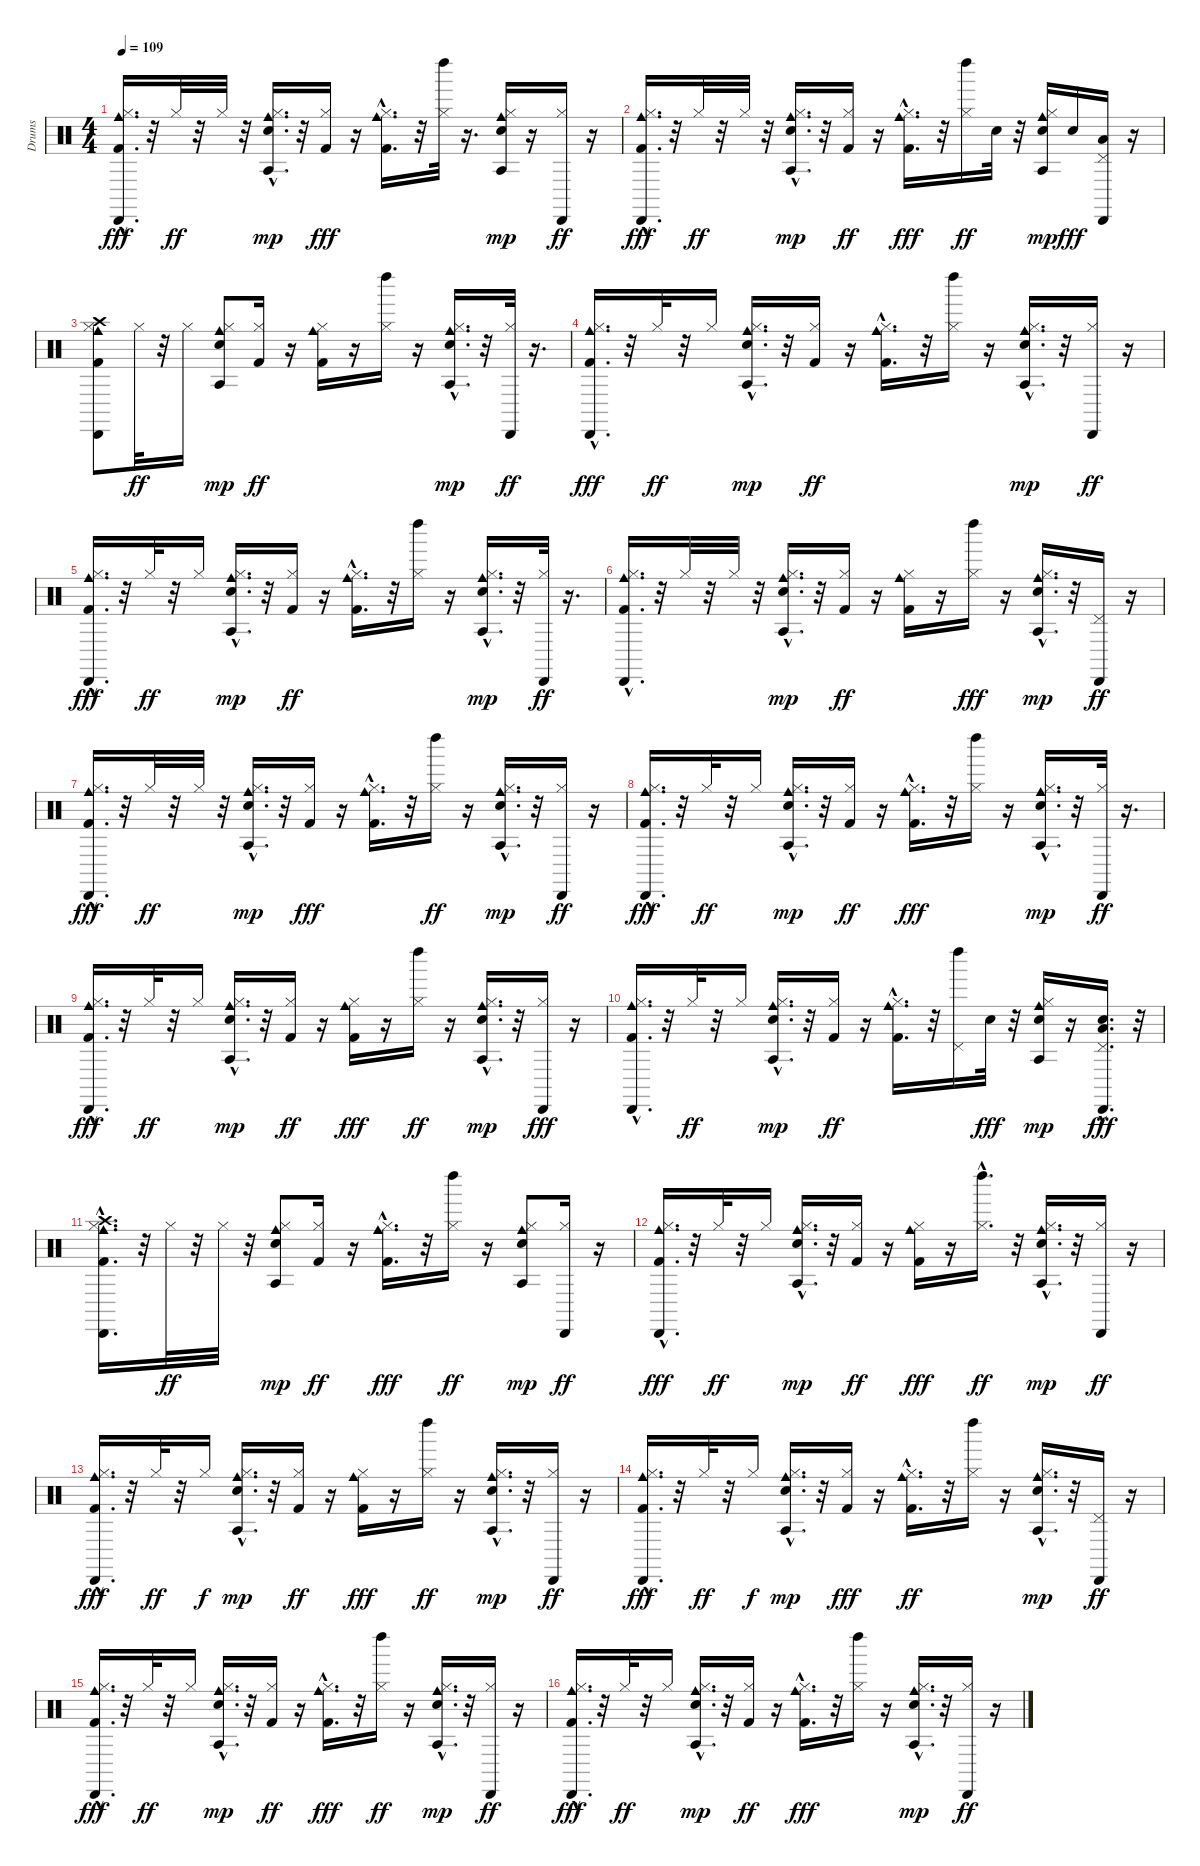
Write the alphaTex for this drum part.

\track ("Drums   " "Drums   ") {instrument percussion}
\staff {score}
\articulation defaults
\ts (4 4)
\tempo 109
\clef neutral
\ks c
("Kick (hit) 2"{hac} "Hi-Hat (closed)"{hac} "Cowbell medium (hit)"{hac} "Cabasa (hit)"{hac}).16{d dy fff} r.32 "Hi-Hat (closed)".32{dy ff} r.32 "Hi-Hat (closed)".32 r.32 ("Snare (hit) 2"{hac} "Hi-Hat (closed)"{hac} "Cowbell medium (hit)"{hac} "Agogo tow (hit)"{hac}).16{d dy mp} r.32 ("Kick (hit) 2" "Hi-Hat (closed)").16{dy fff} r.16 ("Kick (hit) 2"{hac} "Cowbell medium (hit)"{hac} "Hi-Hat (closed)"{hac}).16{d} r.32 ("Hi-Hat (closed)" "Left Maraca (hit)").32 r.16{d} ("Snare (hit) 2" "Hi-Hat (closed)" "Cowbell medium (hit)" "Agogo tow (hit)").16{dy mp} r.16 ("Hi-Hat (closed)" "Cabasa (hit)").16{dy ff} r.16 |
("Cowbell medium (hit)"{hac} "Kick (hit) 2"{hac} "Hi-Hat (closed)"{hac} "Cabasa (hit)"{hac}).16{d dy fff} r.32 "Hi-Hat (closed)".32{dy ff} r.32 "Hi-Hat (closed)".32 r.32 ("Snare (hit) 2"{hac} "Hi-Hat (closed)"{hac} "Cowbell medium (hit)"{hac} "Agogo tow (hit)"{hac}).16{d dy mp} r.32 ("Kick (hit) 2" "Hi-Hat (closed)").16{dy ff} r.16 ("Kick (hit) 2"{hac} "Hi-Hat (closed)"{hac} "Cowbell medium (hit)"{hac}).16{d dy fff} r.32 ("Hi-Hat (closed)" "Left Maraca (hit)").16{dy ff} "Snare (hit) 2".32 r.32 ("Snare (hit) 2" "Hi-Hat (closed)" "Cowbell medium (hit)" "Agogo tow (hit)").16{dy mp} "Snare (hit) 2".16{dy fff} ("Pedal Hi-Hat (hit)" "Low Tom (hit)" "Cabasa (hit)").16 r.16 |
("Kick (hit) 2" "Cowbell medium (hit)" "Hi-Hat (closed)" "Cabasa (hit)" "Crash high (hit)").8 "Hi-Hat (closed)".32{dy ff} r.32 "Hi-Hat (closed)".16 ("Snare (hit) 2" "Hi-Hat (closed)" "Cowbell medium (hit)" "Agogo tow (hit)").8{dy mp} ("Kick (hit) 2" "Hi-Hat (closed)").16{dy ff} r.16 ("Kick (hit) 2" "Cowbell medium (hit)" "Hi-Hat (closed)").16 r.16 ("Hi-Hat (closed)" "Left Maraca (hit)").16 r.16 ("Snare (hit) 2"{hac} "Hi-Hat (closed)"{hac} "Cowbell medium (hit)"{hac} "Agogo tow (hit)"{hac}).16{d dy mp} r.32 ("Hi-Hat (closed)" "Cabasa (hit)").32{dy ff} r.16{d} |
("Kick (hit) 2"{hac} "Cowbell medium (hit)"{hac} "Hi-Hat (closed)"{hac} "Cabasa (hit)"{hac}).16{d dy fff} r.32 "Hi-Hat (closed)".32{dy ff} r.32 "Hi-Hat (closed)".16 ("Snare (hit) 2"{hac} "Hi-Hat (closed)"{hac} "Cowbell medium (hit)"{hac} "Agogo tow (hit)"{hac}).16{d dy mp} r.32 ("Kick (hit) 2" "Hi-Hat (closed)").16{dy ff} r.16 ("Kick (hit) 2"{hac} "Cowbell medium (hit)"{hac} "Hi-Hat (closed)"{hac}).16{d} r.32 ("Hi-Hat (closed)" "Left Maraca (hit)").16 r.16 ("Snare (hit) 2"{hac} "Hi-Hat (closed)"{hac} "Cowbell medium (hit)"{hac} "Agogo tow (hit)"{hac}).16{d dy mp} r.32 ("Hi-Hat (closed)" "Cabasa (hit)").16{dy ff} r.16 |
("Cowbell medium (hit)"{hac} "Kick (hit) 2"{hac} "Hi-Hat (closed)"{hac} "Cabasa (hit)"{hac}).16{d dy fff} r.32 "Hi-Hat (closed)".32{dy ff} r.32 "Hi-Hat (closed)".16 ("Snare (hit) 2"{hac} "Cowbell medium (hit)"{hac} "Hi-Hat (closed)"{hac} "Agogo tow (hit)"{hac}).16{d dy mp} r.32 ("Kick (hit) 2" "Hi-Hat (closed)").16{dy ff} r.16 ("Kick (hit) 2"{hac} "Cowbell medium (hit)"{hac} "Hi-Hat (closed)"{hac}).16{d} r.32 ("Hi-Hat (closed)" "Left Maraca (hit)").16 r.16 ("Snare (hit) 2"{hac} "Cowbell medium (hit)"{hac} "Hi-Hat (closed)"{hac} "Agogo tow (hit)"{hac}).16{d dy mp} r.32 ("Hi-Hat (closed)" "Cabasa (hit)").32{dy ff} r.16{d} |
("Cowbell medium (hit)"{hac} "Kick (hit) 2"{hac} "Hi-Hat (closed)"{hac} "Cabasa (hit)"{hac}).16{d} r.32 "Hi-Hat (closed)".32 r.32 "Hi-Hat (closed)".32 r.32 ("Snare (hit) 2"{hac} "Cowbell medium (hit)"{hac} "Hi-Hat (closed)"{hac} "Agogo tow (hit)"{hac}).16{d dy mp} r.32 ("Kick (hit) 2" "Hi-Hat (closed)").16{dy ff} r.16 ("Cowbell medium (hit)" "Kick (hit) 2" "Hi-Hat (closed)").16 r.16 ("Hi-Hat (closed)" "Left Maraca (hit)").16{dy fff} r.16 ("Snare (hit) 2"{hac} "Cowbell medium (hit)"{hac} "Hi-Hat (closed)"{hac} "Agogo tow (hit)"{hac}).16{d dy mp} r.32 ("Pedal Hi-Hat (hit)" "Cabasa (hit)").16{dy ff} r.16 |
("Kick (hit) 2"{hac} "Cowbell medium (hit)"{hac} "Hi-Hat (closed)"{hac} "Cabasa (hit)"{hac}).16{d dy fff} r.32 "Hi-Hat (closed)".32{dy ff} r.32 "Hi-Hat (closed)".32 r.32 ("Snare (hit) 2"{hac} "Hi-Hat (closed)"{hac} "Cowbell medium (hit)"{hac} "Agogo tow (hit)"{hac}).16{d dy mp} r.32 ("Kick (hit) 2" "Hi-Hat (closed)").16{dy fff} r.16 ("Kick (hit) 2"{hac} "Cowbell medium (hit)"{hac} "Hi-Hat (closed)"{hac}).16{d} r.32 ("Hi-Hat (closed)" "Left Maraca (hit)").16{dy ff} r.16 ("Snare (hit) 2"{hac} "Hi-Hat (closed)"{hac} "Cowbell medium (hit)"{hac} "Agogo tow (hit)"{hac}).16{d dy mp} r.32 ("Hi-Hat (closed)" "Cabasa (hit)").16{dy ff} r.16 |
("Kick (hit) 2"{hac} "Cowbell medium (hit)"{hac} "Hi-Hat (closed)"{hac} "Cabasa (hit)"{hac}).16{d dy fff} r.32 "Hi-Hat (closed)".32{dy ff} r.32 "Hi-Hat (closed)".16 ("Snare (hit) 2"{hac} "Hi-Hat (closed)"{hac} "Cowbell medium (hit)"{hac} "Agogo tow (hit)"{hac}).16{d dy mp} r.32 ("Kick (hit) 2" "Hi-Hat (closed)").16{dy ff} r.16 ("Kick (hit) 2"{hac} "Hi-Hat (closed)"{hac} "Cowbell medium (hit)"{hac}).16{d dy fff} r.32 ("Hi-Hat (closed)" "Left Maraca (hit)").16 r.16 ("Snare (hit) 2"{hac} "Hi-Hat (closed)"{hac} "Cowbell medium (hit)"{hac} "Agogo tow (hit)"{hac}).16{d dy mp} r.32 ("Hi-Hat (closed)" "Cabasa (hit)").32{dy ff} r.16{d} |
("Kick (hit) 2"{hac} "Cowbell medium (hit)"{hac} "Hi-Hat (closed)"{hac} "Cabasa (hit)"{hac}).16{d dy fff} r.32 "Hi-Hat (closed)".32{dy ff} r.32 "Hi-Hat (closed)".16 ("Snare (hit) 2"{hac} "Hi-Hat (closed)"{hac} "Cowbell medium (hit)"{hac} "Agogo tow (hit)"{hac}).16{d dy mp} r.32 ("Kick (hit) 2" "Hi-Hat (closed)").16{dy ff} r.16 ("Kick (hit) 2" "Cowbell medium (hit)" "Hi-Hat (closed)").16{dy fff} r.16 ("Hi-Hat (closed)" "Left Maraca (hit)").16{dy ff} r.16 ("Snare (hit) 2"{hac} "Hi-Hat (closed)"{hac} "Cowbell medium (hit)"{hac} "Agogo tow (hit)"{hac}).16{d dy mp} r.32 ("Hi-Hat (closed)" "Cabasa (hit)").16{dy fff} r.16 |
("Kick (hit) 2"{hac} "Cowbell medium (hit)"{hac} "Hi-Hat (closed)"{hac} "Cabasa (hit)"{hac}).16{d} r.32 "Hi-Hat (closed)".32{dy ff} r.32 "Hi-Hat (closed)".16 ("Snare (hit) 2"{hac} "Hi-Hat (closed)"{hac} "Cowbell medium (hit)"{hac} "Agogo tow (hit)"{hac}).16{d dy mp} r.32 ("Kick (hit) 2" "Hi-Hat (closed)").16{dy ff} r.16 ("Kick (hit) 2"{hac} "Cowbell medium (hit)"{hac} "Hi-Hat (closed)"{hac}).16{d} r.32 ("Pedal Hi-Hat (hit)" "Left Maraca (hit)").16 "Snare (hit) 2".32{dy fff} r.32 ("Snare (hit) 2" "Hi-Hat (closed)" "Cowbell medium (hit)" "Agogo tow (hit)").16{dy mp} r.16 ("Snare (hit) 2"{hac} "Pedal Hi-Hat (hit)"{hac} "Cabasa (hit)"{hac} "Low Tom (hit)"{hac}).16{d dy fff} r.32 |
("Kick (hit) 2"{hac} "Cowbell medium (hit)"{hac} "Hi-Hat (closed)"{hac} "Cabasa (hit)"{hac} "Crash high (hit)"{hac}).16{d} r.32 "Hi-Hat (closed)".32{dy ff} r.32 "Hi-Hat (closed)".32 r.32 ("Snare (hit) 2" "Hi-Hat (closed)" "Cowbell medium (hit)" "Agogo tow (hit)").8{dy mp} ("Kick (hit) 2" "Hi-Hat (closed)").16{dy ff} r.16 ("Kick (hit) 2"{hac} "Hi-Hat (closed)"{hac} "Cowbell medium (hit)"{hac}).16{d dy fff} r.32 ("Hi-Hat (closed)" "Left Maraca (hit)").16{dy ff} r.16 ("Snare (hit) 2" "Hi-Hat (closed)" "Cowbell medium (hit)" "Agogo tow (hit)").8{dy mp} ("Hi-Hat (closed)" "Cabasa (hit)").16{dy ff} r.16 |
("Kick (hit) 2"{hac} "Cowbell medium (hit)"{hac} "Hi-Hat (closed)"{hac} "Cabasa (hit)"{hac}).16{d dy fff} r.32 "Hi-Hat (closed)".32{dy ff} r.32 "Hi-Hat (closed)".16 ("Snare (hit) 2"{hac} "Hi-Hat (closed)"{hac} "Cowbell medium (hit)"{hac} "Agogo tow (hit)"{hac}).16{d dy mp} r.32 ("Kick (hit) 2" "Hi-Hat (closed)").16{dy ff} r.16 ("Kick (hit) 2" "Cowbell medium (hit)" "Hi-Hat (closed)").16{dy fff} r.16 ("Hi-Hat (closed)"{hac} "Left Maraca (hit)"{hac}).16{d dy ff} r.32 ("Snare (hit) 2"{hac} "Hi-Hat (closed)"{hac} "Cowbell medium (hit)"{hac} "Agogo tow (hit)"{hac}).16{d dy mp} r.32 ("Hi-Hat (closed)" "Cabasa (hit)").16{dy ff} r.16 |
("Cowbell medium (hit)"{hac} "Kick (hit) 2"{hac} "Hi-Hat (closed)"{hac} "Cabasa (hit)"{hac}).16{d dy fff} r.32 "Hi-Hat (closed)".32{dy ff} r.32 "Hi-Hat (closed)".16{dy f} ("Snare (hit) 2"{hac} "Cowbell medium (hit)"{hac} "Hi-Hat (closed)"{hac} "Agogo tow (hit)"{hac}).16{d dy mp} r.32 ("Kick (hit) 2" "Hi-Hat (closed)").16{dy ff} r.16 ("Cowbell medium (hit)" "Kick (hit) 2" "Hi-Hat (closed)").16{dy fff} r.16 ("Hi-Hat (closed)" "Left Maraca (hit)").16{dy ff} r.16 ("Snare (hit) 2"{hac} "Hi-Hat (closed)"{hac} "Cowbell medium (hit)"{hac} "Agogo tow (hit)"{hac}).16{d dy mp} r.32 ("Hi-Hat (closed)" "Cabasa (hit)").16{dy ff} r.16 |
("Kick (hit) 2"{hac} "Hi-Hat (closed)"{hac} "Cowbell medium (hit)"{hac} "Cabasa (hit)"{hac}).16{d dy fff} r.32 "Hi-Hat (closed)".32{dy ff} r.32 "Hi-Hat (closed)".16{dy f} ("Snare (hit) 2"{hac} "Cowbell medium (hit)"{hac} "Hi-Hat (closed)"{hac} "Agogo tow (hit)"{hac}).16{d dy mp} r.32 ("Kick (hit) 2" "Hi-Hat (closed)").16{dy fff} r.16 ("Kick (hit) 2"{hac} "Cowbell medium (hit)"{hac} "Hi-Hat (closed)"{hac}).16{d dy ff} r.32 ("Hi-Hat (closed)" "Left Maraca (hit)").16 r.16 ("Snare (hit) 2"{hac} "Cowbell medium (hit)"{hac} "Hi-Hat (closed)"{hac} "Agogo tow (hit)"{hac}).16{d dy mp} r.32 ("Pedal Hi-Hat (hit)" "Cabasa (hit)").16{dy ff} r.16 |
("Cowbell medium (hit)"{hac} "Kick (hit) 2"{hac} "Hi-Hat (closed)"{hac} "Cabasa (hit)"{hac}).16{d dy fff} r.32 "Hi-Hat (closed)".32{dy ff} r.32 "Hi-Hat (closed)".16 ("Snare (hit) 2"{hac} "Hi-Hat (closed)"{hac} "Cowbell medium (hit)"{hac} "Agogo tow (hit)"{hac}).16{d dy mp} r.32 ("Kick (hit) 2" "Hi-Hat (closed)").16{dy ff} r.16 ("Kick (hit) 2"{hac} "Hi-Hat (closed)"{hac} "Cowbell medium (hit)"{hac}).16{d dy fff} r.32 ("Hi-Hat (closed)" "Left Maraca (hit)").16{dy ff} r.16 ("Snare (hit) 2"{hac} "Hi-Hat (closed)"{hac} "Cowbell medium (hit)"{hac} "Agogo tow (hit)"{hac}).16{d dy mp} r.32 ("Hi-Hat (closed)" "Cabasa (hit)").16{dy ff} r.16 |
("Kick (hit) 2"{hac} "Cowbell medium (hit)"{hac} "Hi-Hat (closed)"{hac} "Cabasa (hit)"{hac}).16{d dy fff} r.32 "Hi-Hat (closed)".32{dy ff} r.32 "Hi-Hat (closed)".16 ("Cowbell medium (hit)"{hac} "Snare (hit) 2"{hac} "Hi-Hat (closed)"{hac} "Agogo tow (hit)"{hac}).16{d dy mp} r.32 ("Kick (hit) 2" "Hi-Hat (closed)").16{dy ff} r.16 ("Kick (hit) 2"{hac} "Cowbell medium (hit)"{hac} "Hi-Hat (closed)"{hac}).16{d dy fff} r.32 ("Hi-Hat (closed)" "Left Maraca (hit)").16 r.16 ("Snare (hit) 2"{hac} "Hi-Hat (closed)"{hac} "Cowbell medium (hit)"{hac} "Agogo tow (hit)"{hac}).16{d dy mp} r.32 ("Hi-Hat (closed)" "Cabasa (hit)").16{dy ff} r.16
